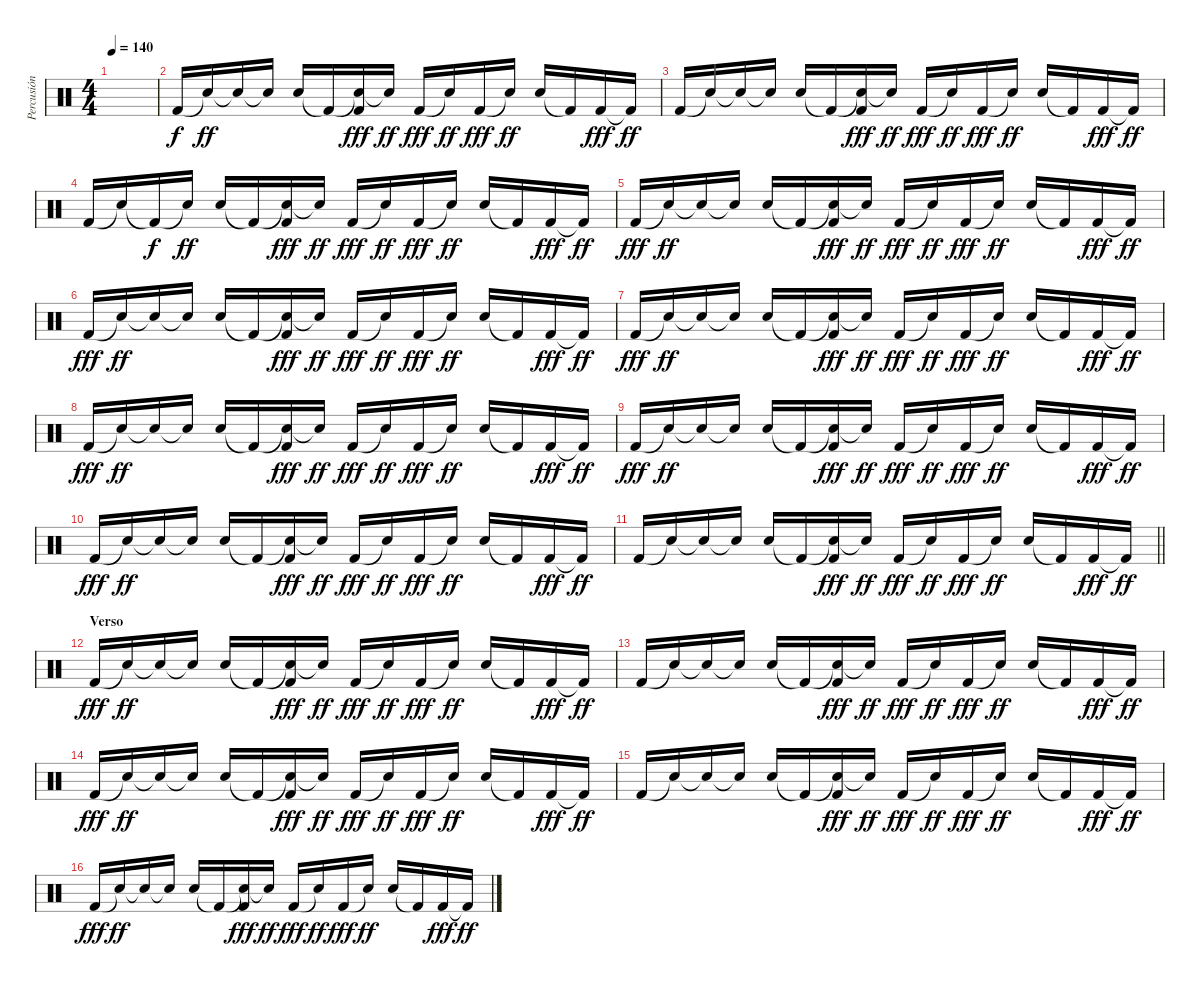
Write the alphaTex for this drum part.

\track ("Percusión" "Percusión") {instrument percussion}
\staff {score}
\articulation defaults
\ts (4 4)
\tempo 140
\clef neutral
\ks c
|
"Kick (hit) 2".16 "Snare (hit)"{t}.16{dy ff} "Electric Snare (hit)"{t}.16 "Snare (hit)"{t}.16 "Electric Snare (hit)".16 "Kick (hit) 2"{t}.16 ("Electric Snare (hit)"{t} "Kick (hit) 2").16{dy fff} "Snare (hit)"{t}.16{dy ff} "Kick (hit) 2".16{dy fff} "Snare (hit)"{t}.16{dy ff} "Kick (hit) 2".16{dy fff} "Snare (hit)"{t}.16{dy ff} "Electric Snare (hit)".16 "Kick (hit) 2"{t}.16 "Kick (hit) 2".16{dy fff} "Kick (hit) 2"{t}.16{dy ff} |
"Kick (hit) 2".16 "Snare (hit)"{t}.16 "Electric Snare (hit)"{t}.16 "Snare (hit)"{t}.16 "Electric Snare (hit)".16 "Kick (hit) 2"{t}.16 ("Electric Snare (hit)"{t} "Kick (hit) 2").16{dy fff} "Snare (hit)"{t}.16{dy ff} "Kick (hit) 2".16{dy fff} "Snare (hit)"{t}.16{dy ff} "Kick (hit) 2".16{dy fff} "Snare (hit)"{t}.16{dy ff} "Electric Snare (hit)".16 "Kick (hit) 2"{t}.16 "Kick (hit) 2".16{dy fff} "Kick (hit) 2"{t}.16{dy ff} |
"Kick (hit) 2".16 "Snare (hit)"{t}.16 "Kick (hit) 2"{t}.16{dy f} "Snare (hit)"{t}.16{dy ff} "Electric Snare (hit)".16 "Kick (hit) 2"{t}.16 ("Electric Snare (hit)"{t} "Kick (hit) 2").16{dy fff} "Snare (hit)"{t}.16{dy ff} "Kick (hit) 2".16{dy fff} "Snare (hit)"{t}.16{dy ff} "Kick (hit) 2".16{dy fff} "Snare (hit)"{t}.16{dy ff} "Electric Snare (hit)".16 "Kick (hit) 2"{t}.16 "Kick (hit) 2".16{dy fff} "Kick (hit) 2"{t}.16{dy ff} |
"Kick (hit) 2".16{dy fff} "Snare (hit)"{t}.16{dy ff} "Electric Snare (hit)"{t}.16 "Snare (hit)"{t}.16 "Electric Snare (hit)".16 "Kick (hit) 2"{t}.16 ("Electric Snare (hit)"{t} "Kick (hit) 2").16{dy fff} "Snare (hit)"{t}.16{dy ff} "Kick (hit) 2".16{dy fff} "Snare (hit)"{t}.16{dy ff} "Kick (hit) 2".16{dy fff} "Snare (hit)"{t}.16{dy ff} "Electric Snare (hit)".16 "Kick (hit) 2"{t}.16 "Kick (hit) 2".16{dy fff} "Kick (hit) 2"{t}.16{dy ff} |
"Kick (hit) 2".16{dy fff} "Snare (hit)"{t}.16{dy ff} "Electric Snare (hit)"{t}.16 "Snare (hit)"{t}.16 "Electric Snare (hit)".16 "Kick (hit) 2"{t}.16 ("Electric Snare (hit)"{t} "Kick (hit) 2").16{dy fff} "Snare (hit)"{t}.16{dy ff} "Kick (hit) 2".16{dy fff} "Snare (hit)"{t}.16{dy ff} "Kick (hit) 2".16{dy fff} "Snare (hit)"{t}.16{dy ff} "Electric Snare (hit)".16 "Kick (hit) 2"{t}.16 "Kick (hit) 2".16{dy fff} "Kick (hit) 2"{t}.16{dy ff} |
"Kick (hit) 2".16{dy fff} "Snare (hit)"{t}.16{dy ff} "Electric Snare (hit)"{t}.16 "Snare (hit)"{t}.16 "Electric Snare (hit)".16 "Kick (hit) 2"{t}.16 ("Electric Snare (hit)"{t} "Kick (hit) 2").16{dy fff} "Snare (hit)"{t}.16{dy ff} "Kick (hit) 2".16{dy fff} "Snare (hit)"{t}.16{dy ff} "Kick (hit) 2".16{dy fff} "Snare (hit)"{t}.16{dy ff} "Electric Snare (hit)".16 "Kick (hit) 2"{t}.16 "Kick (hit) 2".16{dy fff} "Kick (hit) 2"{t}.16{dy ff} |
"Kick (hit) 2".16{dy fff} "Snare (hit)"{t}.16{dy ff} "Electric Snare (hit)"{t}.16 "Snare (hit)"{t}.16 "Electric Snare (hit)".16 "Kick (hit) 2"{t}.16 ("Electric Snare (hit)"{t} "Kick (hit) 2").16{dy fff} "Snare (hit)"{t}.16{dy ff} "Kick (hit) 2".16{dy fff} "Snare (hit)"{t}.16{dy ff} "Kick (hit) 2".16{dy fff} "Snare (hit)"{t}.16{dy ff} "Electric Snare (hit)".16 "Kick (hit) 2"{t}.16 "Kick (hit) 2".16{dy fff} "Kick (hit) 2"{t}.16{dy ff} |
"Kick (hit) 2".16{dy fff} "Snare (hit)"{t}.16{dy ff} "Electric Snare (hit)"{t}.16 "Snare (hit)"{t}.16 "Electric Snare (hit)".16 "Kick (hit) 2"{t}.16 ("Electric Snare (hit)"{t} "Kick (hit) 2").16{dy fff} "Snare (hit)"{t}.16{dy ff} "Kick (hit) 2".16{dy fff} "Snare (hit)"{t}.16{dy ff} "Kick (hit) 2".16{dy fff} "Snare (hit)"{t}.16{dy ff} "Electric Snare (hit)".16 "Kick (hit) 2"{t}.16 "Kick (hit) 2".16{dy fff} "Kick (hit) 2"{t}.16{dy ff} |
"Kick (hit) 2".16{dy fff} "Snare (hit)"{t}.16{dy ff} "Electric Snare (hit)"{t}.16 "Snare (hit)"{t}.16 "Electric Snare (hit)".16 "Kick (hit) 2"{t}.16 ("Electric Snare (hit)"{t} "Kick (hit) 2").16{dy fff} "Snare (hit)"{t}.16{dy ff} "Kick (hit) 2".16{dy fff} "Snare (hit)"{t}.16{dy ff} "Kick (hit) 2".16{dy fff} "Snare (hit)"{t}.16{dy ff} "Electric Snare (hit)".16 "Kick (hit) 2"{t}.16 "Kick (hit) 2".16{dy fff} "Kick (hit) 2"{t}.16{dy ff} |
\barLineRight lightlight "Kick (hit) 2".16 "Snare (hit)"{t}.16 "Electric Snare (hit)"{t}.16 "Snare (hit)"{t}.16 "Electric Snare (hit)".16 "Kick (hit) 2"{t}.16
("Electric Snare (hit)"{t} "Kick (hit) 2").16{dy fff} "Snare (hit)"{t}.16{dy ff} "Kick (hit) 2".16{dy fff} "Snare (hit)"{t}.16{dy ff} "Kick (hit) 2".16{dy fff} "Snare (hit)"{t}.16{dy ff} "Electric Snare (hit)".16 "Kick (hit) 2"{t}.16 "Kick (hit) 2".16{dy fff} "Kick (hit) 2"{t}.16{dy ff} |
\section ("" "Verso")
"Kick (hit) 2".16{dy fff} "Snare (hit)"{t}.16{dy ff} "Electric Snare (hit)"{t}.16 "Snare (hit)"{t}.16 "Electric Snare (hit)".16 "Kick (hit) 2"{t}.16 ("Electric Snare (hit)"{t} "Kick (hit) 2").16{dy fff} "Snare (hit)"{t}.16{dy ff} "Kick (hit) 2".16{dy fff} "Snare (hit)"{t}.16{dy ff} "Kick (hit) 2".16{dy fff} "Snare (hit)"{t}.16{dy ff} "Electric Snare (hit)".16 "Kick (hit) 2"{t}.16 "Kick (hit) 2".16{dy fff} "Kick (hit) 2"{t}.16{dy ff} |
"Kick (hit) 2".16 "Snare (hit)"{t}.16 "Electric Snare (hit)"{t}.16 "Snare (hit)"{t}.16 "Electric Snare (hit)".16 "Kick (hit) 2"{t}.16 ("Electric Snare (hit)"{t} "Kick (hit) 2").16{dy fff} "Snare (hit)"{t}.16{dy ff} "Kick (hit) 2".16{dy fff} "Snare (hit)"{t}.16{dy ff} "Kick (hit) 2".16{dy fff} "Snare (hit)"{t}.16{dy ff} "Electric Snare (hit)".16 "Kick (hit) 2"{t}.16 "Kick (hit) 2".16{dy fff} "Kick (hit) 2"{t}.16{dy ff} |
"Kick (hit) 2".16{dy fff} "Snare (hit)"{t}.16{dy ff} "Electric Snare (hit)"{t}.16 "Snare (hit)"{t}.16 "Electric Snare (hit)".16 "Kick (hit) 2"{t}.16 ("Electric Snare (hit)"{t} "Kick (hit) 2").16{dy fff} "Snare (hit)"{t}.16{dy ff} "Kick (hit) 2".16{dy fff} "Snare (hit)"{t}.16{dy ff} "Kick (hit) 2".16{dy fff} "Snare (hit)"{t}.16{dy ff} "Electric Snare (hit)".16 "Kick (hit) 2"{t}.16 "Kick (hit) 2".16{dy fff} "Kick (hit) 2"{t}.16{dy ff} |
"Kick (hit) 2".16 "Snare (hit)"{t}.16 "Electric Snare (hit)"{t}.16 "Snare (hit)"{t}.16 "Electric Snare (hit)".16 "Kick (hit) 2"{t}.16 ("Electric Snare (hit)"{t} "Kick (hit) 2").16{dy fff} "Snare (hit)"{t}.16{dy ff} "Kick (hit) 2".16{dy fff} "Snare (hit)"{t}.16{dy ff} "Kick (hit) 2".16{dy fff} "Snare (hit)"{t}.16{dy ff} "Electric Snare (hit)".16 "Kick (hit) 2"{t}.16 "Kick (hit) 2".16{dy fff} "Kick (hit) 2"{t}.16{dy ff} |
"Kick (hit) 2".16{dy fff} "Snare (hit)"{t}.16{dy ff} "Electric Snare (hit)"{t}.16 "Snare (hit)"{t}.16 "Electric Snare (hit)".16 "Kick (hit) 2"{t}.16 ("Electric Snare (hit)"{t} "Kick (hit) 2").16{dy fff} "Snare (hit)"{t}.16{dy ff} "Kick (hit) 2".16{dy fff} "Snare (hit)"{t}.16{dy ff} "Kick (hit) 2".16{dy fff} "Snare (hit)"{t}.16{dy ff} "Electric Snare (hit)".16 "Kick (hit) 2"{t}.16 "Kick (hit) 2".16{dy fff} "Kick (hit) 2"{t}.16{dy ff}
